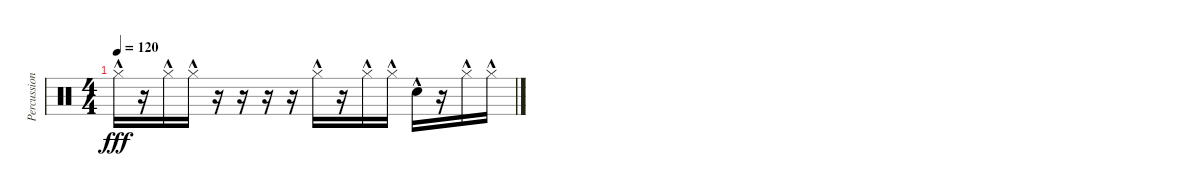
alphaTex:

\track ("Percussion" "Percussion") {instrument percussion}
\staff {score}
\articulation defaults
\ts (4 4)
\tempo 120
\clef neutral
\ks c "Hi-Hat (closed)"{hac}.16{dy fff}
r.16 "Hi-Hat (closed)"{hac}.16 "Hi-Hat (closed)"{hac}.16 r.16 r.16 r.16 r.16 "Hi-Hat (closed)"{hac}.16 r.16 "Hi-Hat (closed)"{hac}.16 "Hi-Hat (closed)"{hac}.16 "Snare (hit) 2"{hac}.16 r.16 "Hi-Hat (closed)"{hac}.16 "Hi-Hat (closed)"{hac}.16
